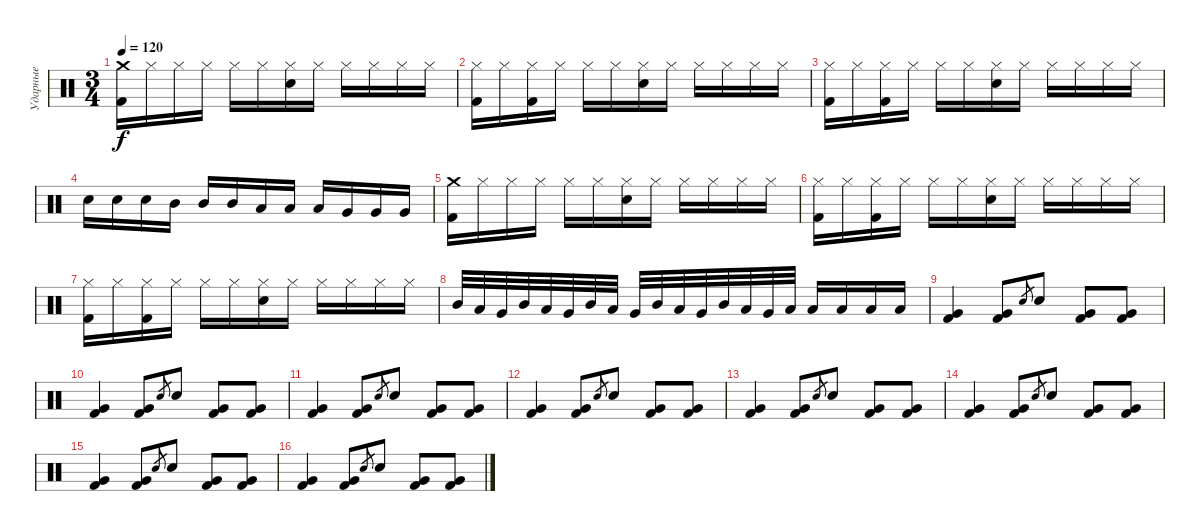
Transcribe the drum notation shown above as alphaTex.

\track ("Ударные" "Ударные") {instrument percussion}
\staff {score}
\articulation defaults
\ts (3 4)
\tempo 120
\clef neutral
\ks c
("Crash medium (hit)" "Kick (hit) 2").16{dy f} "Hi-Hat (closed)".16 "Hi-Hat (closed)".16 "Hi-Hat (closed)".16 "Hi-Hat (closed)".16 "Hi-Hat (closed)".16 ("Hi-Hat (closed)" "Electric Snare (hit)").16 "Hi-Hat (closed)".16 "Hi-Hat (closed)".16 "Hi-Hat (closed)".16 "Hi-Hat (closed)".16 "Hi-Hat (closed)".16 |
("Hi-Hat (closed)" "Kick (hit) 2").16 "Hi-Hat (closed)".16 ("Hi-Hat (closed)" "Kick (hit) 2").16 "Hi-Hat (closed)".16 "Hi-Hat (closed)".16 "Hi-Hat (closed)".16 ("Hi-Hat (closed)" "Electric Snare (hit)").16 "Hi-Hat (closed)".16 "Hi-Hat (closed)".16 "Hi-Hat (closed)".16 "Hi-Hat (closed)".16 "Hi-Hat (closed)".16 |
("Hi-Hat (closed)" "Kick (hit) 2").16 "Hi-Hat (closed)".16 ("Hi-Hat (closed)" "Kick (hit) 2").16 "Hi-Hat (closed)".16 "Hi-Hat (closed)".16 "Hi-Hat (closed)".16 ("Hi-Hat (closed)" "Electric Snare (hit)").16 "Hi-Hat (closed)".16 "Hi-Hat (closed)".16 "Hi-Hat (closed)".16 "Hi-Hat (closed)".16 "Hi-Hat (closed)".16 |
"Electric Snare (hit)".16 "Electric Snare (hit)".16 "Electric Snare (hit)".16 "Mid Tom (hit)".16 "Mid Tom (hit)".16 "Mid Tom (hit)".16 "Low Tom (hit)".16 "Low Tom (hit)".16 "Low Tom (hit)".16 "Very Low Tom (hit)".16 "Very Low Tom (hit)".16 "Very Low Tom (hit)".16 |
("Crash medium (hit)" "Kick (hit) 2").16 "Hi-Hat (closed)".16 "Hi-Hat (closed)".16 "Hi-Hat (closed)".16 "Hi-Hat (closed)".16 "Hi-Hat (closed)".16 ("Hi-Hat (closed)" "Electric Snare (hit)").16 "Hi-Hat (closed)".16 "Hi-Hat (closed)".16 "Hi-Hat (closed)".16 "Hi-Hat (closed)".16 "Hi-Hat (closed)".16 |
("Hi-Hat (closed)" "Kick (hit) 2").16 "Hi-Hat (closed)".16 ("Hi-Hat (closed)" "Kick (hit) 2").16 "Hi-Hat (closed)".16 "Hi-Hat (closed)".16 "Hi-Hat (closed)".16 ("Hi-Hat (closed)" "Electric Snare (hit)").16 "Hi-Hat (closed)".16 "Hi-Hat (closed)".16 "Hi-Hat (closed)".16 "Hi-Hat (closed)".16 "Hi-Hat (closed)".16 |
("Hi-Hat (closed)" "Kick (hit) 2").16 "Hi-Hat (closed)".16 ("Hi-Hat (closed)" "Kick (hit) 2").16 "Hi-Hat (closed)".16 "Hi-Hat (closed)".16 "Hi-Hat (closed)".16 ("Hi-Hat (closed)" "Electric Snare (hit)").16 "Hi-Hat (closed)".16 "Hi-Hat (closed)".16 "Hi-Hat (closed)".16 "Hi-Hat (closed)".16 "Hi-Hat (closed)".16 |
"Mid Tom (hit)".32 "Low Tom (hit)".32 "Very Low Tom (hit)".32 "Mid Tom (hit)".32 "Low Tom (hit)".32 "Very Low Tom (hit)".32 "Mid Tom (hit)".32 "Low Tom (hit)".32 "Very Low Tom (hit)".32 "Mid Tom (hit)".32 "Low Tom (hit)".32 "Very Low Tom (hit)".32 "Mid Tom (hit)".32 "Low Tom (hit)".32 "Very Low Tom (hit)".32 "Low Floor Tom (hit)".32 "Low Floor Tom (hit)".16 "Low Floor Tom (hit)".16 "Low Floor Tom (hit)".16 "Low Floor Tom (hit)".16 |
("Very Low Tom (hit)" "Kick (hit) 2").4 ("Very Low Tom (hit)" "Kick (hit) 2").8 "Electric Snare (hit)".8{gr} "Electric Snare (hit)".8 ("Very Low Tom (hit)" "Kick (hit) 2").8 ("Very Low Tom (hit)" "Kick (hit) 2").8 |
("Very Low Tom (hit)" "Kick (hit) 2").4 ("Very Low Tom (hit)" "Kick (hit) 2").8 "Electric Snare (hit)".8{gr} "Electric Snare (hit)".8 ("Very Low Tom (hit)" "Kick (hit) 2").8 ("Very Low Tom (hit)" "Kick (hit) 2").8 |
("Very Low Tom (hit)" "Kick (hit) 2").4 ("Very Low Tom (hit)" "Kick (hit) 2").8 "Electric Snare (hit)".8{gr} "Electric Snare (hit)".8 ("Very Low Tom (hit)" "Kick (hit) 2").8 ("Very Low Tom (hit)" "Kick (hit) 2").8 |
("Very Low Tom (hit)" "Kick (hit) 2").4 ("Very Low Tom (hit)" "Kick (hit) 2").8 "Electric Snare (hit)".8{gr} "Electric Snare (hit)".8 ("Very Low Tom (hit)" "Kick (hit) 2").8 ("Very Low Tom (hit)" "Kick (hit) 2").8 |
("Very Low Tom (hit)" "Kick (hit) 2").4 ("Very Low Tom (hit)" "Kick (hit) 2").8 "Electric Snare (hit)".8{gr} "Electric Snare (hit)".8 ("Very Low Tom (hit)" "Kick (hit) 2").8 ("Very Low Tom (hit)" "Kick (hit) 2").8 |
("Very Low Tom (hit)" "Kick (hit) 2").4 ("Very Low Tom (hit)" "Kick (hit) 2").8 "Electric Snare (hit)".8{gr} "Electric Snare (hit)".8 ("Very Low Tom (hit)" "Kick (hit) 2").8 ("Very Low Tom (hit)" "Kick (hit) 2").8 |
("Very Low Tom (hit)" "Kick (hit) 2").4 ("Very Low Tom (hit)" "Kick (hit) 2").8 "Electric Snare (hit)".8{gr} "Electric Snare (hit)".8 ("Very Low Tom (hit)" "Kick (hit) 2").8 ("Very Low Tom (hit)" "Kick (hit) 2").8 |
("Very Low Tom (hit)" "Kick (hit) 2").4 ("Very Low Tom (hit)" "Kick (hit) 2").8 "Electric Snare (hit)".8{gr} "Electric Snare (hit)".8 ("Very Low Tom (hit)" "Kick (hit) 2").8 ("Very Low Tom (hit)" "Kick (hit) 2").8
